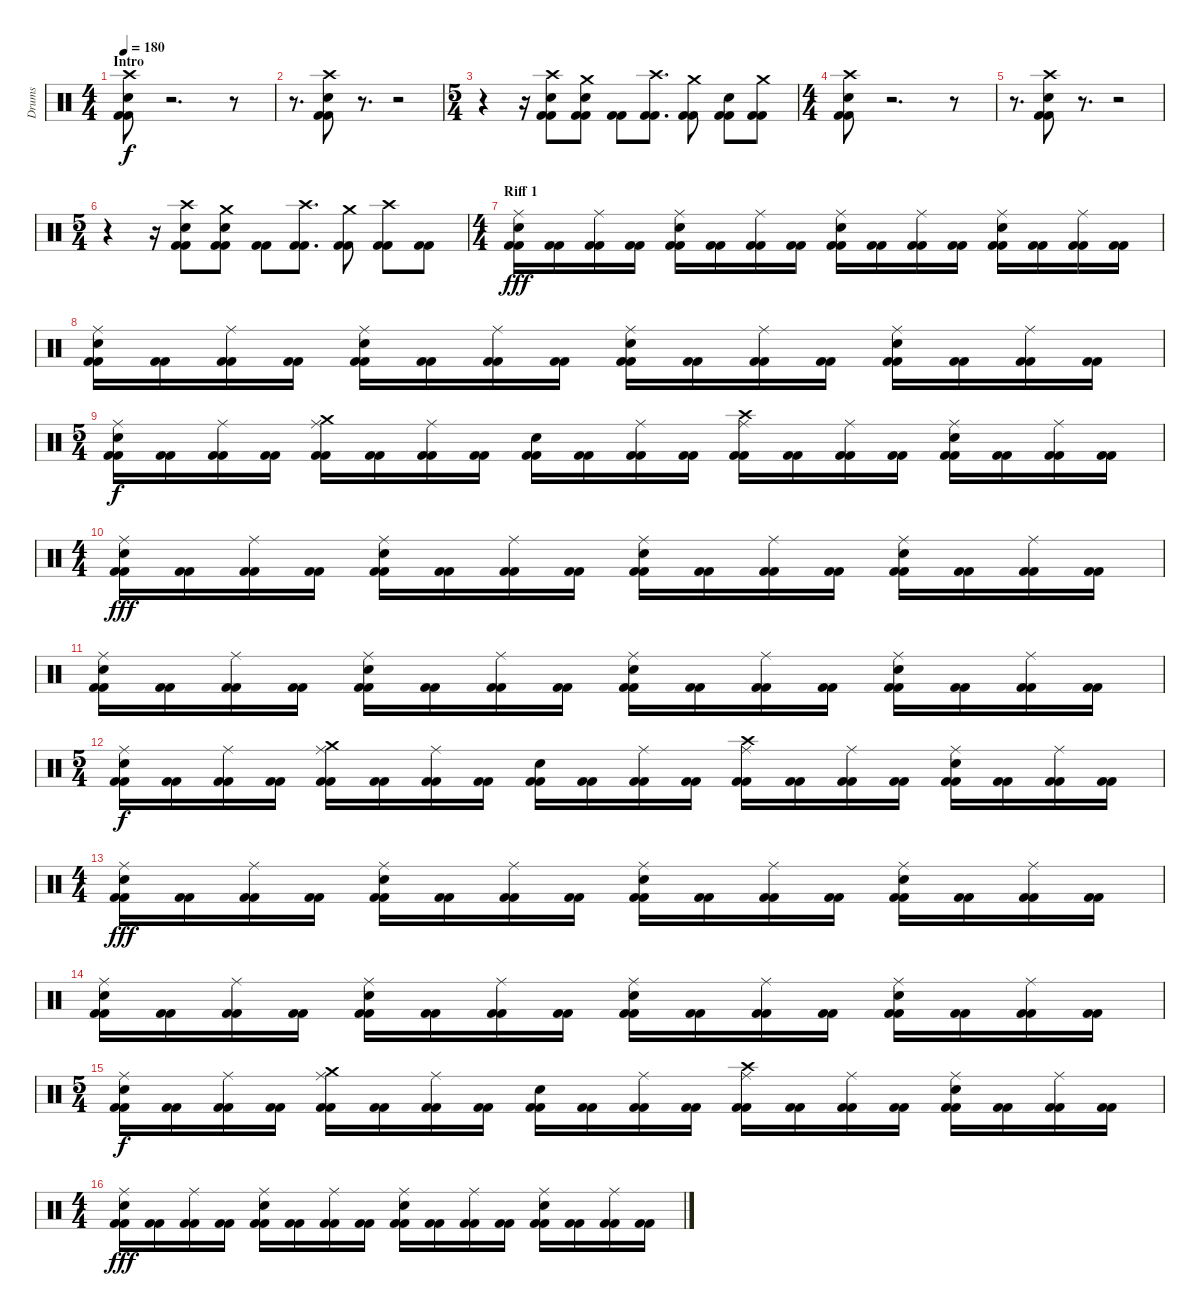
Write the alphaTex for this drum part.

\track ("Drums" "Drums") {instrument percussion}
\staff {score}
\articulation defaults
\ts (4 4)
\section ("" "Intro")
\tempo 180
\clef neutral
\ks c
("Crash high (hit)" "Snare (hit) 2" "Kick (hit) 2" "Kick (hit) 2").8{dy f} r.2{d} r.8 |
r.8{d} ("Crash high (hit)" "Snare (hit) 2" "Kick (hit) 2" "Kick (hit) 2").8 r.8{d} r.2 |
\ts (5 4)
r.4 r.16 ("Crash high (hit)" "Snare (hit) 2" "Kick (hit) 2" "Kick (hit) 2").8 ("Crash medium (hit)" "Snare (hit) 2" "Kick (hit) 2" "Kick (hit) 2").8 ("Kick (hit) 2" "Kick (hit) 2").8 ("Crash high (hit)" "Kick (hit) 2" "Kick (hit) 2").8{d} ("Crash medium (hit)" "Kick (hit) 2" "Kick (hit) 2").8 ("Snare (hit) 2" "Kick (hit) 2" "Kick (hit) 2").8 ("Crash medium (hit)" "Kick (hit) 2" "Kick (hit) 2").8 |
\ts (4 4)
("Crash high (hit)" "Snare (hit) 2" "Kick (hit) 2" "Kick (hit) 2").8 r.2{d} r.8 |
r.8{d} ("Crash high (hit)" "Snare (hit) 2" "Kick (hit) 2" "Kick (hit) 2").8 r.8{d} r.2 |
\ts (5 4)
r.4 r.16 ("Crash high (hit)" "Snare (hit) 2" "Kick (hit) 2" "Kick (hit) 2").8 ("Crash medium (hit)" "Snare (hit) 2" "Kick (hit) 2" "Kick (hit) 2").8 ("Kick (hit) 2" "Kick (hit) 2").8 ("Crash high (hit)" "Kick (hit) 2" "Kick (hit) 2").8{d} ("Crash medium (hit)" "Kick (hit) 2" "Kick (hit) 2").8 ("Crash high (hit)" "Kick (hit) 2" "Kick (hit) 2").8 ("Kick (hit) 2" "Kick (hit) 2").8 |
\ts (4 4)
\section ("" "Riff 1")
("Kick (hit) 2" "Kick (hit) 2" "Electric Snare (hit)" "Ride (middle)").16{dy fff} ("Kick (hit) 2" "Kick (hit) 2").16 ("Kick (hit) 2" "Kick (hit) 2" "Ride (middle)").16 ("Kick (hit) 2" "Kick (hit) 2").16 ("Kick (hit) 2" "Kick (hit) 2" "Electric Snare (hit)" "Ride (middle)").16 ("Kick (hit) 2" "Kick (hit) 2").16 ("Kick (hit) 2" "Kick (hit) 2" "Ride (middle)").16 ("Kick (hit) 2" "Kick (hit) 2").16 ("Kick (hit) 2" "Kick (hit) 2" "Electric Snare (hit)" "Ride (middle)").16 ("Kick (hit) 2" "Kick (hit) 2").16 ("Kick (hit) 2" "Kick (hit) 2" "Ride (middle)").16 ("Kick (hit) 2" "Kick (hit) 2").16 ("Kick (hit) 2" "Kick (hit) 2" "Electric Snare (hit)" "Ride (middle)").16 ("Kick (hit) 2" "Kick (hit) 2").16 ("Kick (hit) 2" "Kick (hit) 2" "Ride (middle)").16 ("Kick (hit) 2" "Kick (hit) 2").16 |
("Kick (hit) 2" "Kick (hit) 2" "Electric Snare (hit)" "Ride (middle)").16 ("Kick (hit) 2" "Kick (hit) 2").16 ("Kick (hit) 2" "Kick (hit) 2" "Ride (middle)").16 ("Kick (hit) 2" "Kick (hit) 2").16 ("Kick (hit) 2" "Kick (hit) 2" "Electric Snare (hit)" "Ride (middle)").16 ("Kick (hit) 2" "Kick (hit) 2").16 ("Kick (hit) 2" "Kick (hit) 2" "Ride (middle)").16 ("Kick (hit) 2" "Kick (hit) 2").16 ("Kick (hit) 2" "Kick (hit) 2" "Electric Snare (hit)" "Ride (middle)").16 ("Kick (hit) 2" "Kick (hit) 2").16 ("Kick (hit) 2" "Kick (hit) 2" "Ride (middle)").16 ("Kick (hit) 2" "Kick (hit) 2").16 ("Kick (hit) 2" "Kick (hit) 2" "Electric Snare (hit)" "Ride (middle)").16 ("Kick (hit) 2" "Kick (hit) 2").16 ("Kick (hit) 2" "Kick (hit) 2" "Ride (middle)").16 ("Kick (hit) 2" "Kick (hit) 2").16 |
\ts (5 4)
("Kick (hit) 2" "Kick (hit) 2" "Electric Snare (hit)" "Ride (middle)").16{dy f} ("Kick (hit) 2" "Kick (hit) 2").16 ("Kick (hit) 2" "Kick (hit) 2" "Ride (middle)").16 ("Kick (hit) 2" "Kick (hit) 2").16 ("Kick (hit) 2" "Kick (hit) 2" "Crash medium (hit)" "Ride (middle)").16 ("Kick (hit) 2" "Kick (hit) 2").16 ("Kick (hit) 2" "Kick (hit) 2" "Ride (middle)").16 ("Kick (hit) 2" "Kick (hit) 2").16 ("Kick (hit) 2" "Kick (hit) 2" "Snare (hit) 2").16 ("Kick (hit) 2" "Kick (hit) 2").16 ("Kick (hit) 2" "Kick (hit) 2" "Ride (middle)").16 ("Kick (hit) 2" "Kick (hit) 2").16 ("Kick (hit) 2" "Kick (hit) 2" "Crash high (hit)" "Ride (middle)").16 ("Kick (hit) 2" "Kick (hit) 2").16 ("Kick (hit) 2" "Kick (hit) 2" "Ride (middle)").16 ("Kick (hit) 2" "Kick (hit) 2").16 ("Kick (hit) 2" "Kick (hit) 2" "Electric Snare (hit)" "Ride (middle)").16 ("Kick (hit) 2" "Kick (hit) 2").16 ("Kick (hit) 2" "Kick (hit) 2" "Ride (middle)").16 ("Kick (hit) 2" "Kick (hit) 2").16 |
\ts (4 4)
("Kick (hit) 2" "Kick (hit) 2" "Electric Snare (hit)" "Ride (middle)").16{dy fff} ("Kick (hit) 2" "Kick (hit) 2").16 ("Kick (hit) 2" "Kick (hit) 2" "Ride (middle)").16 ("Kick (hit) 2" "Kick (hit) 2").16 ("Kick (hit) 2" "Kick (hit) 2" "Electric Snare (hit)" "Ride (middle)").16 ("Kick (hit) 2" "Kick (hit) 2").16 ("Kick (hit) 2" "Kick (hit) 2" "Ride (middle)").16 ("Kick (hit) 2" "Kick (hit) 2").16 ("Kick (hit) 2" "Kick (hit) 2" "Electric Snare (hit)" "Ride (middle)").16 ("Kick (hit) 2" "Kick (hit) 2").16 ("Kick (hit) 2" "Kick (hit) 2" "Ride (middle)").16 ("Kick (hit) 2" "Kick (hit) 2").16 ("Kick (hit) 2" "Kick (hit) 2" "Electric Snare (hit)" "Ride (middle)").16 ("Kick (hit) 2" "Kick (hit) 2").16 ("Kick (hit) 2" "Kick (hit) 2" "Ride (middle)").16 ("Kick (hit) 2" "Kick (hit) 2").16 |
("Kick (hit) 2" "Kick (hit) 2" "Electric Snare (hit)" "Ride (middle)").16 ("Kick (hit) 2" "Kick (hit) 2").16 ("Kick (hit) 2" "Kick (hit) 2" "Ride (middle)").16 ("Kick (hit) 2" "Kick (hit) 2").16 ("Kick (hit) 2" "Kick (hit) 2" "Electric Snare (hit)" "Ride (middle)").16 ("Kick (hit) 2" "Kick (hit) 2").16 ("Kick (hit) 2" "Kick (hit) 2" "Ride (middle)").16 ("Kick (hit) 2" "Kick (hit) 2").16 ("Kick (hit) 2" "Kick (hit) 2" "Electric Snare (hit)" "Ride (middle)").16 ("Kick (hit) 2" "Kick (hit) 2").16 ("Kick (hit) 2" "Kick (hit) 2" "Ride (middle)").16 ("Kick (hit) 2" "Kick (hit) 2").16 ("Kick (hit) 2" "Kick (hit) 2" "Electric Snare (hit)" "Ride (middle)").16 ("Kick (hit) 2" "Kick (hit) 2").16 ("Kick (hit) 2" "Kick (hit) 2" "Ride (middle)").16 ("Kick (hit) 2" "Kick (hit) 2").16 |
\ts (5 4)
("Kick (hit) 2" "Kick (hit) 2" "Electric Snare (hit)" "Ride (middle)").16{dy f} ("Kick (hit) 2" "Kick (hit) 2").16 ("Kick (hit) 2" "Kick (hit) 2" "Ride (middle)").16 ("Kick (hit) 2" "Kick (hit) 2").16 ("Kick (hit) 2" "Kick (hit) 2" "Crash medium (hit)" "Ride (middle)").16 ("Kick (hit) 2" "Kick (hit) 2").16 ("Kick (hit) 2" "Kick (hit) 2" "Ride (middle)").16 ("Kick (hit) 2" "Kick (hit) 2").16 ("Kick (hit) 2" "Kick (hit) 2" "Snare (hit) 2").16 ("Kick (hit) 2" "Kick (hit) 2").16 ("Kick (hit) 2" "Kick (hit) 2" "Ride (middle)").16 ("Kick (hit) 2" "Kick (hit) 2").16 ("Kick (hit) 2" "Kick (hit) 2" "Crash high (hit)" "Ride (middle)").16 ("Kick (hit) 2" "Kick (hit) 2").16 ("Kick (hit) 2" "Kick (hit) 2" "Ride (middle)").16 ("Kick (hit) 2" "Kick (hit) 2").16 ("Kick (hit) 2" "Kick (hit) 2" "Snare (hit) 2" "Ride (middle)").16 ("Kick (hit) 2" "Kick (hit) 2").16 ("Kick (hit) 2" "Kick (hit) 2" "Ride (middle)").16 ("Kick (hit) 2" "Kick (hit) 2").16 |
\ts (4 4)
("Kick (hit) 2" "Kick (hit) 2" "Electric Snare (hit)" "Ride (middle)").16{dy fff} ("Kick (hit) 2" "Kick (hit) 2").16 ("Kick (hit) 2" "Kick (hit) 2" "Ride (middle)").16 ("Kick (hit) 2" "Kick (hit) 2").16 ("Kick (hit) 2" "Kick (hit) 2" "Electric Snare (hit)" "Ride (middle)").16 ("Kick (hit) 2" "Kick (hit) 2").16 ("Kick (hit) 2" "Kick (hit) 2" "Ride (middle)").16 ("Kick (hit) 2" "Kick (hit) 2").16 ("Kick (hit) 2" "Kick (hit) 2" "Electric Snare (hit)" "Ride (middle)").16 ("Kick (hit) 2" "Kick (hit) 2").16 ("Kick (hit) 2" "Kick (hit) 2" "Ride (middle)").16 ("Kick (hit) 2" "Kick (hit) 2").16 ("Kick (hit) 2" "Kick (hit) 2" "Electric Snare (hit)" "Ride (middle)").16 ("Kick (hit) 2" "Kick (hit) 2").16 ("Kick (hit) 2" "Kick (hit) 2" "Ride (middle)").16 ("Kick (hit) 2" "Kick (hit) 2").16 |
("Kick (hit) 2" "Kick (hit) 2" "Electric Snare (hit)" "Ride (middle)").16 ("Kick (hit) 2" "Kick (hit) 2").16 ("Kick (hit) 2" "Kick (hit) 2" "Ride (middle)").16 ("Kick (hit) 2" "Kick (hit) 2").16 ("Kick (hit) 2" "Kick (hit) 2" "Electric Snare (hit)" "Ride (middle)").16 ("Kick (hit) 2" "Kick (hit) 2").16 ("Kick (hit) 2" "Kick (hit) 2" "Ride (middle)").16 ("Kick (hit) 2" "Kick (hit) 2").16 ("Kick (hit) 2" "Kick (hit) 2" "Electric Snare (hit)" "Ride (middle)").16 ("Kick (hit) 2" "Kick (hit) 2").16 ("Kick (hit) 2" "Kick (hit) 2" "Ride (middle)").16 ("Kick (hit) 2" "Kick (hit) 2").16 ("Kick (hit) 2" "Kick (hit) 2" "Electric Snare (hit)" "Ride (middle)").16 ("Kick (hit) 2" "Kick (hit) 2").16 ("Kick (hit) 2" "Kick (hit) 2" "Ride (middle)").16 ("Kick (hit) 2" "Kick (hit) 2").16 |
\ts (5 4)
("Kick (hit) 2" "Kick (hit) 2" "Electric Snare (hit)" "Ride (middle)").16{dy f} ("Kick (hit) 2" "Kick (hit) 2").16 ("Kick (hit) 2" "Kick (hit) 2" "Ride (middle)").16 ("Kick (hit) 2" "Kick (hit) 2").16 ("Kick (hit) 2" "Kick (hit) 2" "Crash medium (hit)" "Ride (middle)").16 ("Kick (hit) 2" "Kick (hit) 2").16 ("Kick (hit) 2" "Kick (hit) 2" "Ride (middle)").16 ("Kick (hit) 2" "Kick (hit) 2").16 ("Kick (hit) 2" "Kick (hit) 2" "Snare (hit) 2").16 ("Kick (hit) 2" "Kick (hit) 2").16 ("Kick (hit) 2" "Kick (hit) 2" "Ride (middle)").16 ("Kick (hit) 2" "Kick (hit) 2").16 ("Kick (hit) 2" "Kick (hit) 2" "Crash high (hit)" "Ride (middle)").16 ("Kick (hit) 2" "Kick (hit) 2").16 ("Kick (hit) 2" "Kick (hit) 2" "Ride (middle)").16 ("Kick (hit) 2" "Kick (hit) 2").16 ("Kick (hit) 2" "Kick (hit) 2" "Electric Snare (hit)" "Ride (middle)").16 ("Kick (hit) 2" "Kick (hit) 2").16 ("Kick (hit) 2" "Kick (hit) 2" "Ride (middle)").16 ("Kick (hit) 2" "Kick (hit) 2").16 |
\ts (4 4)
("Kick (hit) 2" "Kick (hit) 2" "Electric Snare (hit)" "Ride (middle)").16{dy fff} ("Kick (hit) 2" "Kick (hit) 2").16 ("Kick (hit) 2" "Kick (hit) 2" "Ride (middle)").16 ("Kick (hit) 2" "Kick (hit) 2").16 ("Kick (hit) 2" "Kick (hit) 2" "Electric Snare (hit)" "Ride (middle)").16 ("Kick (hit) 2" "Kick (hit) 2").16 ("Kick (hit) 2" "Kick (hit) 2" "Ride (middle)").16 ("Kick (hit) 2" "Kick (hit) 2").16 ("Kick (hit) 2" "Kick (hit) 2" "Electric Snare (hit)" "Ride (middle)").16 ("Kick (hit) 2" "Kick (hit) 2").16 ("Kick (hit) 2" "Kick (hit) 2" "Ride (middle)").16 ("Kick (hit) 2" "Kick (hit) 2").16 ("Kick (hit) 2" "Kick (hit) 2" "Electric Snare (hit)" "Ride (middle)").16 ("Kick (hit) 2" "Kick (hit) 2").16 ("Kick (hit) 2" "Kick (hit) 2" "Ride (middle)").16 ("Kick (hit) 2" "Kick (hit) 2").16
